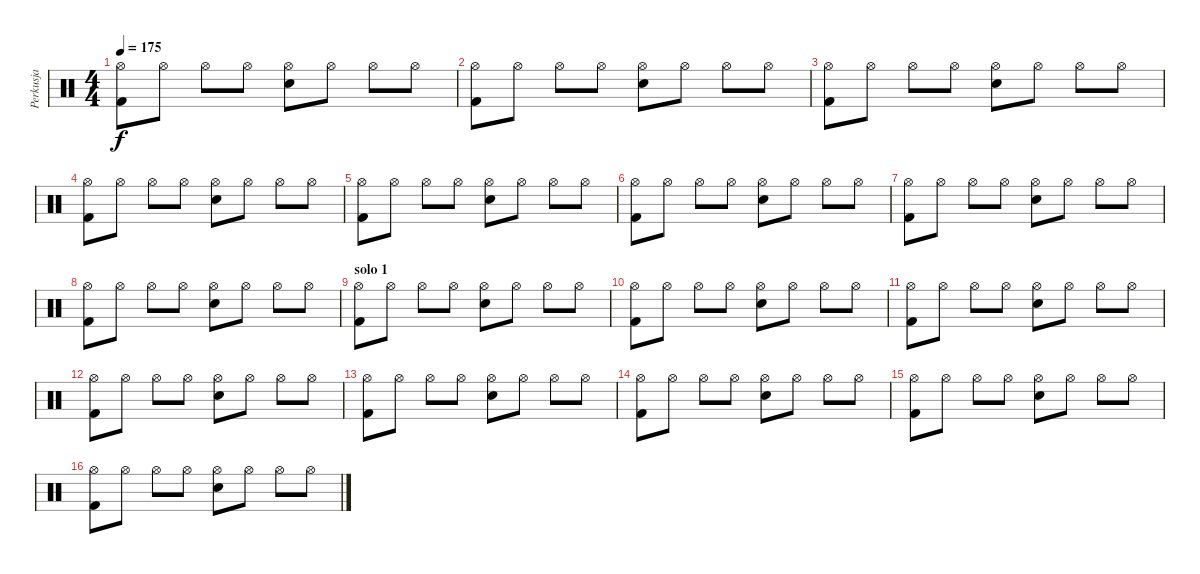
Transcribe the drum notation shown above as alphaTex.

\track ("Perkusja" "Perkusja") {instrument percussion}
\staff {score}
\articulation defaults
\ts (4 4)
\tempo 175
\clef neutral
\ks c
("Kick (hit) 2" "Hi-Hat (open)").8{dy f} "Hi-Hat (open)".8 "Hi-Hat (open)".8 "Hi-Hat (open)".8 ("Snare (hit) 2" "Hi-Hat (open)").8 "Hi-Hat (open)".8 "Hi-Hat (open)".8 "Hi-Hat (open)".8 |
("Kick (hit) 2" "Hi-Hat (open)").8 "Hi-Hat (open)".8 "Hi-Hat (open)".8 "Hi-Hat (open)".8 ("Snare (hit) 2" "Hi-Hat (open)").8 "Hi-Hat (open)".8 "Hi-Hat (open)".8 "Hi-Hat (open)".8 |
("Kick (hit) 2" "Hi-Hat (open)").8 "Hi-Hat (open)".8 "Hi-Hat (open)".8 "Hi-Hat (open)".8 ("Snare (hit) 2" "Hi-Hat (open)").8 "Hi-Hat (open)".8 "Hi-Hat (open)".8 "Hi-Hat (open)".8 |
("Kick (hit) 2" "Hi-Hat (open)").8 "Hi-Hat (open)".8 "Hi-Hat (open)".8 "Hi-Hat (open)".8 ("Snare (hit) 2" "Hi-Hat (open)").8 "Hi-Hat (open)".8 "Hi-Hat (open)".8 "Hi-Hat (open)".8 |
("Kick (hit) 2" "Hi-Hat (open)").8 "Hi-Hat (open)".8 "Hi-Hat (open)".8 "Hi-Hat (open)".8 ("Snare (hit) 2" "Hi-Hat (open)").8 "Hi-Hat (open)".8 "Hi-Hat (open)".8 "Hi-Hat (open)".8 |
("Kick (hit) 2" "Hi-Hat (open)").8 "Hi-Hat (open)".8 "Hi-Hat (open)".8 "Hi-Hat (open)".8 ("Snare (hit) 2" "Hi-Hat (open)").8 "Hi-Hat (open)".8 "Hi-Hat (open)".8 "Hi-Hat (open)".8 |
("Kick (hit) 2" "Hi-Hat (open)").8 "Hi-Hat (open)".8 "Hi-Hat (open)".8 "Hi-Hat (open)".8 ("Snare (hit) 2" "Hi-Hat (open)").8 "Hi-Hat (open)".8 "Hi-Hat (open)".8 "Hi-Hat (open)".8 |
("Kick (hit) 2" "Hi-Hat (open)").8 "Hi-Hat (open)".8 "Hi-Hat (open)".8 "Hi-Hat (open)".8 ("Snare (hit) 2" "Hi-Hat (open)").8 "Hi-Hat (open)".8 "Hi-Hat (open)".8 "Hi-Hat (open)".8 |
\section ("" "solo 1")
("Kick (hit) 2" "Hi-Hat (open)").8 "Hi-Hat (open)".8 "Hi-Hat (open)".8 "Hi-Hat (open)".8 ("Snare (hit) 2" "Hi-Hat (open)").8 "Hi-Hat (open)".8 "Hi-Hat (open)".8 "Hi-Hat (open)".8 |
("Kick (hit) 2" "Hi-Hat (open)").8 "Hi-Hat (open)".8 "Hi-Hat (open)".8 "Hi-Hat (open)".8 ("Snare (hit) 2" "Hi-Hat (open)").8 "Hi-Hat (open)".8 "Hi-Hat (open)".8 "Hi-Hat (open)".8 |
("Kick (hit) 2" "Hi-Hat (open)").8 "Hi-Hat (open)".8 "Hi-Hat (open)".8 "Hi-Hat (open)".8 ("Snare (hit) 2" "Hi-Hat (open)").8 "Hi-Hat (open)".8 "Hi-Hat (open)".8 "Hi-Hat (open)".8 |
("Kick (hit) 2" "Hi-Hat (open)").8 "Hi-Hat (open)".8 "Hi-Hat (open)".8 "Hi-Hat (open)".8 ("Snare (hit) 2" "Hi-Hat (open)").8 "Hi-Hat (open)".8 "Hi-Hat (open)".8 "Hi-Hat (open)".8 |
("Kick (hit) 2" "Hi-Hat (open)").8 "Hi-Hat (open)".8 "Hi-Hat (open)".8 "Hi-Hat (open)".8 ("Snare (hit) 2" "Hi-Hat (open)").8 "Hi-Hat (open)".8 "Hi-Hat (open)".8 "Hi-Hat (open)".8 |
("Kick (hit) 2" "Hi-Hat (open)").8 "Hi-Hat (open)".8 "Hi-Hat (open)".8 "Hi-Hat (open)".8 ("Snare (hit) 2" "Hi-Hat (open)").8 "Hi-Hat (open)".8 "Hi-Hat (open)".8 "Hi-Hat (open)".8 |
("Kick (hit) 2" "Hi-Hat (open)").8 "Hi-Hat (open)".8 "Hi-Hat (open)".8 "Hi-Hat (open)".8 ("Snare (hit) 2" "Hi-Hat (open)").8 "Hi-Hat (open)".8 "Hi-Hat (open)".8 "Hi-Hat (open)".8 |
("Kick (hit) 2" "Hi-Hat (open)").8 "Hi-Hat (open)".8 "Hi-Hat (open)".8 "Hi-Hat (open)".8 ("Snare (hit) 2" "Hi-Hat (open)").8 "Hi-Hat (open)".8 "Hi-Hat (open)".8 "Hi-Hat (open)".8
